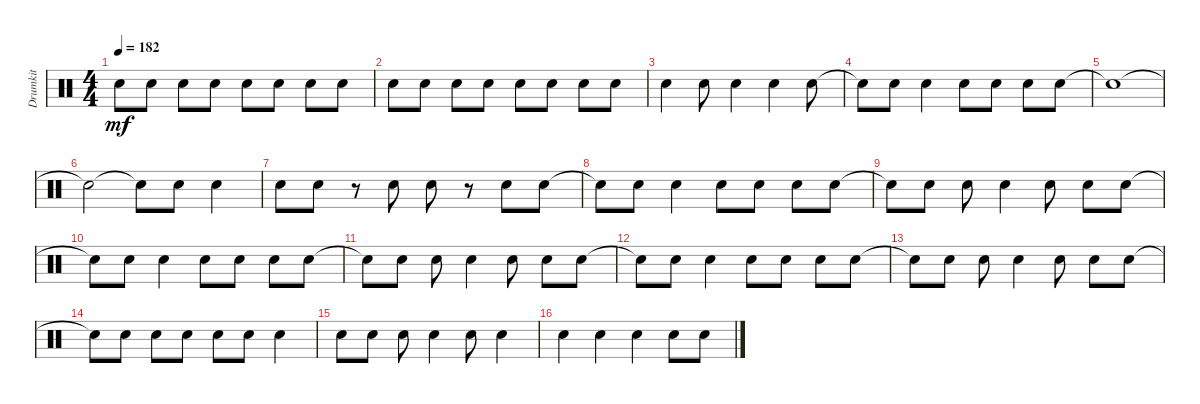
\track ("Drumkit" "Drumkit") {instrument percussion}
\staff {score}
\articulation defaults
\ts (4 4)
\tempo 182
\clef neutral
\ks c "Snare (hit)".8{dy mf} "Snare (hit)".8 "Snare (hit)".8 "Snare (hit)".8 "Snare (hit)".8 "Snare (hit)".8 "Snare (hit)".8 "Snare (hit)".8
|
"Snare (hit)".8 "Snare (hit)".8 "Snare (hit)".8 "Snare (hit)".8 "Snare (hit)".8 "Snare (hit)".8 "Snare (hit)".8 "Snare (hit)".8 |
"Snare (hit)".4 "Snare (hit)".8 "Snare (hit)".4 "Snare (hit)".4 "Snare (hit)".8 |
"Snare (hit)"{t}.8 "Snare (hit)".8 "Snare (hit)".4 "Snare (hit)".8 "Snare (hit)".8 "Snare (hit)".8 "Snare (hit)".8 |
"Snare (hit)"{t}.1 |
"Snare (hit)"{t}.2 "Snare (hit)"{t}.8 "Snare (hit)".8 "Snare (hit)".4 |
"Snare (hit)".8 "Snare (hit)".8 r.8 "Snare (hit)".8 "Snare (hit)".8 r.8 "Snare (hit)".8 "Snare (hit)".8 |
"Snare (hit)"{t}.8 "Snare (hit)".8 "Snare (hit)".4 "Snare (hit)".8 "Snare (hit)".8 "Snare (hit)".8 "Snare (hit)".8 |
"Snare (hit)"{t}.8 "Snare (hit)".8 "Snare (hit)".8 "Snare (hit)".4 "Snare (hit)".8 "Snare (hit)".8 "Snare (hit)".8 |
"Snare (hit)"{t}.8 "Snare (hit)".8 "Snare (hit)".4 "Snare (hit)".8 "Snare (hit)".8 "Snare (hit)".8 "Snare (hit)".8 |
"Snare (hit)"{t}.8 "Snare (hit)".8 "Snare (hit)".8 "Snare (hit)".4 "Snare (hit)".8 "Snare (hit)".8 "Snare (hit)".8 |
"Snare (hit)"{t}.8 "Snare (hit)".8 "Snare (hit)".4 "Snare (hit)".8 "Snare (hit)".8 "Snare (hit)".8 "Snare (hit)".8 |
"Snare (hit)"{t}.8 "Snare (hit)".8 "Snare (hit)".8 "Snare (hit)".4 "Snare (hit)".8 "Snare (hit)".8 "Snare (hit)".8 |
"Snare (hit)"{t}.8 "Snare (hit)".8 "Snare (hit)".8 "Snare (hit)".8 "Snare (hit)".8 "Snare (hit)".8 "Snare (hit)".4 |
"Snare (hit)".8 "Snare (hit)".8 "Snare (hit)".8 "Snare (hit)".4 "Snare (hit)".8 "Snare (hit)".4 |
"Snare (hit)".4 "Snare (hit)".4 "Snare (hit)".4 "Snare (hit)".8 "Snare (hit)".8
